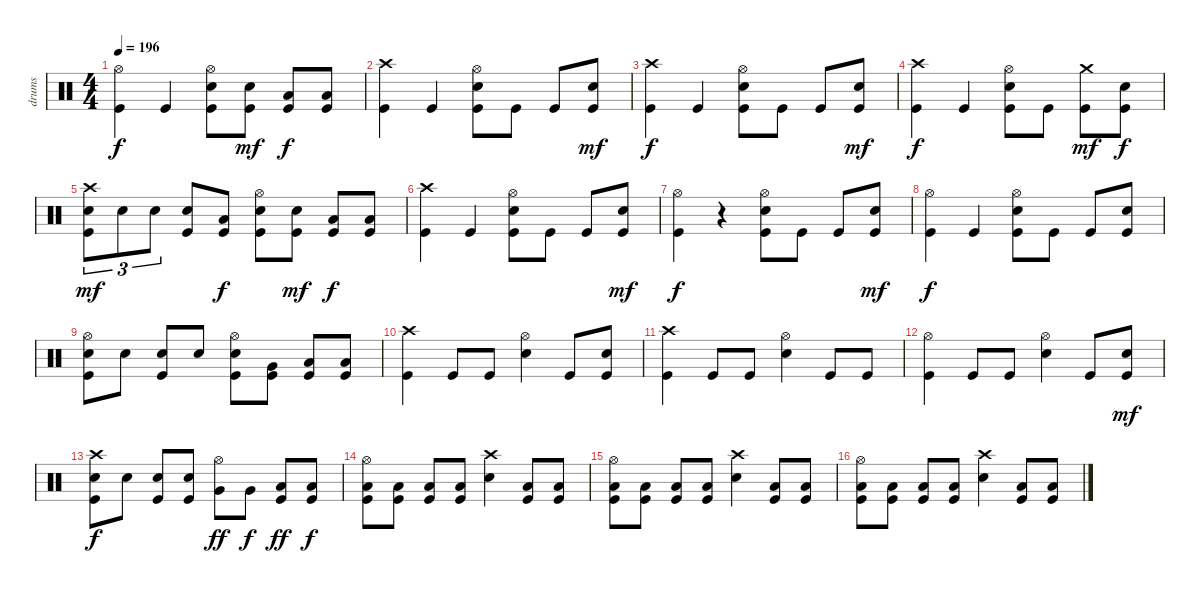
\track ("drums" "drums") {instrument percussion}
\staff {score}
\articulation defaults
\ts (4 4)
\tempo 196
\clef neutral
\ks c
("Hi-Hat (open)" "Kick (hit)").4{dy f} "Kick (hit)".4 ("Hi-Hat (open)" "Electric Snare (hit)" "Kick (hit)").8 ("Electric Snare (hit)" "Kick (hit)").8{dy mf} ("Low Floor Tom (hit)" "Kick (hit)").8{dy f} ("Low Floor Tom (hit)" "Kick (hit)").8 |
("Crash high (hit)" "Kick (hit)").4 "Kick (hit)".4 ("Hi-Hat (open)" "Electric Snare (hit)" "Kick (hit)").8 "Kick (hit)".8 "Kick (hit)".8 ("Electric Snare (hit)" "Kick (hit)").8{dy mf} |
("Crash high (hit)" "Kick (hit)").4{dy f} "Kick (hit)".4 ("Hi-Hat (open)" "Electric Snare (hit)" "Kick (hit)").8 "Kick (hit)".8 "Kick (hit)".8 ("Electric Snare (hit)" "Kick (hit)").8{dy mf} |
("Crash high (hit)" "Kick (hit)").4{dy f} "Kick (hit)".4 ("Hi-Hat (open)" "Electric Snare (hit)" "Kick (hit)").8 "Kick (hit)".8 ("Crash medium (hit)" "Kick (hit)").8{dy mf} ("Electric Snare (hit)" "Kick (hit)").8{dy f} |
("Crash high (hit)" "Electric Snare (hit)" "Kick (hit)").8{tu (3 2) dy mf} "Electric Snare (hit)".8{tu (3 2)} "Electric Snare (hit)".8{tu (3 2)} ("Electric Snare (hit)" "Kick (hit)").8 ("Low Floor Tom (hit)" "Kick (hit)").8{dy f} ("Hi-Hat (open)" "Electric Snare (hit)" "Kick (hit)").8 ("Electric Snare (hit)" "Kick (hit)").8{dy mf} ("Low Floor Tom (hit)" "Kick (hit)").8{dy f} ("Low Floor Tom (hit)" "Kick (hit)").8 |
("Crash high (hit)" "Kick (hit)").4 "Kick (hit)".4 ("Hi-Hat (open)" "Electric Snare (hit)" "Kick (hit)").8 "Kick (hit)".8 "Kick (hit)".8 ("Electric Snare (hit)" "Kick (hit)").8{dy mf} |
("Hi-Hat (open)" "Kick (hit)").4{dy f} r.4 ("Hi-Hat (open)" "Electric Snare (hit)" "Kick (hit)").8 "Kick (hit)".8 "Kick (hit)".8 ("Electric Snare (hit)" "Kick (hit)").8{dy mf} |
("Hi-Hat (open)" "Kick (hit)").4{dy f} "Kick (hit)".4 ("Hi-Hat (open)" "Electric Snare (hit)" "Kick (hit)").8 "Kick (hit)".8 "Kick (hit)".8 ("Electric Snare (hit)" "Kick (hit)").8 |
("Hi-Hat (open)" "Electric Snare (hit)" "Kick (hit)").8 "Electric Snare (hit)".8 ("Electric Snare (hit)" "Kick (hit)").8 "Electric Snare (hit)".8 ("Hi-Hat (open)" "Electric Snare (hit)" "Kick (hit)").8 ("Very Low Tom (hit)" "Kick (hit)").8 ("Low Floor Tom (hit)" "Kick (hit)").8 ("Low Floor Tom (hit)" "Kick (hit)").8 |
("Crash high (hit)" "Kick (hit)").4 "Kick (hit)".8 "Kick (hit)".8 ("Hi-Hat (open)" "Electric Snare (hit)").4 "Kick (hit)".8 ("Electric Snare (hit)" "Kick (hit)").8 |
("Crash high (hit)" "Kick (hit)").4 "Kick (hit)".8 "Kick (hit)".8 ("Hi-Hat (open)" "Electric Snare (hit)").4 "Kick (hit)".8 "Kick (hit)".8 |
("Hi-Hat (open)" "Kick (hit)").4 "Kick (hit)".8 "Kick (hit)".8 ("Hi-Hat (open)" "Electric Snare (hit)").4 "Kick (hit)".8 ("Electric Snare (hit)" "Kick (hit)").8{dy mf} |
("Crash high (hit)" "Electric Snare (hit)" "Kick (hit)").8{dy f} "Electric Snare (hit)".8 ("Electric Snare (hit)" "Kick (hit)").8 ("Electric Snare (hit)" "Kick (hit)").8 ("Hi-Hat (open)" "Very Low Tom (hit)").8{dy ff} "Very Low Tom (hit)".8{dy f} ("Low Floor Tom (hit)" "Kick (hit)").8{dy ff} ("Low Floor Tom (hit)" "Kick (hit)").8{dy f} |
("Hi-Hat (open)" "Low Floor Tom (hit)" "Kick (hit)").8 ("Low Floor Tom (hit)" "Kick (hit)").8 ("Low Floor Tom (hit)" "Kick (hit)").8 ("Low Floor Tom (hit)" "Kick (hit)").8 ("Crash high (hit)" "Electric Snare (hit)").4 ("Low Floor Tom (hit)" "Kick (hit)").8 ("Low Floor Tom (hit)" "Kick (hit)").8 |
("Hi-Hat (open)" "Low Floor Tom (hit)" "Kick (hit)").8 ("Low Floor Tom (hit)" "Kick (hit)").8 ("Low Floor Tom (hit)" "Kick (hit)").8 ("Low Floor Tom (hit)" "Kick (hit)").8 ("Crash high (hit)" "Electric Snare (hit)").4 ("Low Floor Tom (hit)" "Kick (hit)").8 ("Low Floor Tom (hit)" "Kick (hit)").8 |
("Hi-Hat (open)" "Low Floor Tom (hit)" "Kick (hit)").8 ("Low Floor Tom (hit)" "Kick (hit)").8 ("Low Floor Tom (hit)" "Kick (hit)").8 ("Low Floor Tom (hit)" "Kick (hit)").8 ("Crash high (hit)" "Electric Snare (hit)").4 ("Low Floor Tom (hit)" "Kick (hit)").8 ("Low Floor Tom (hit)" "Kick (hit)").8
